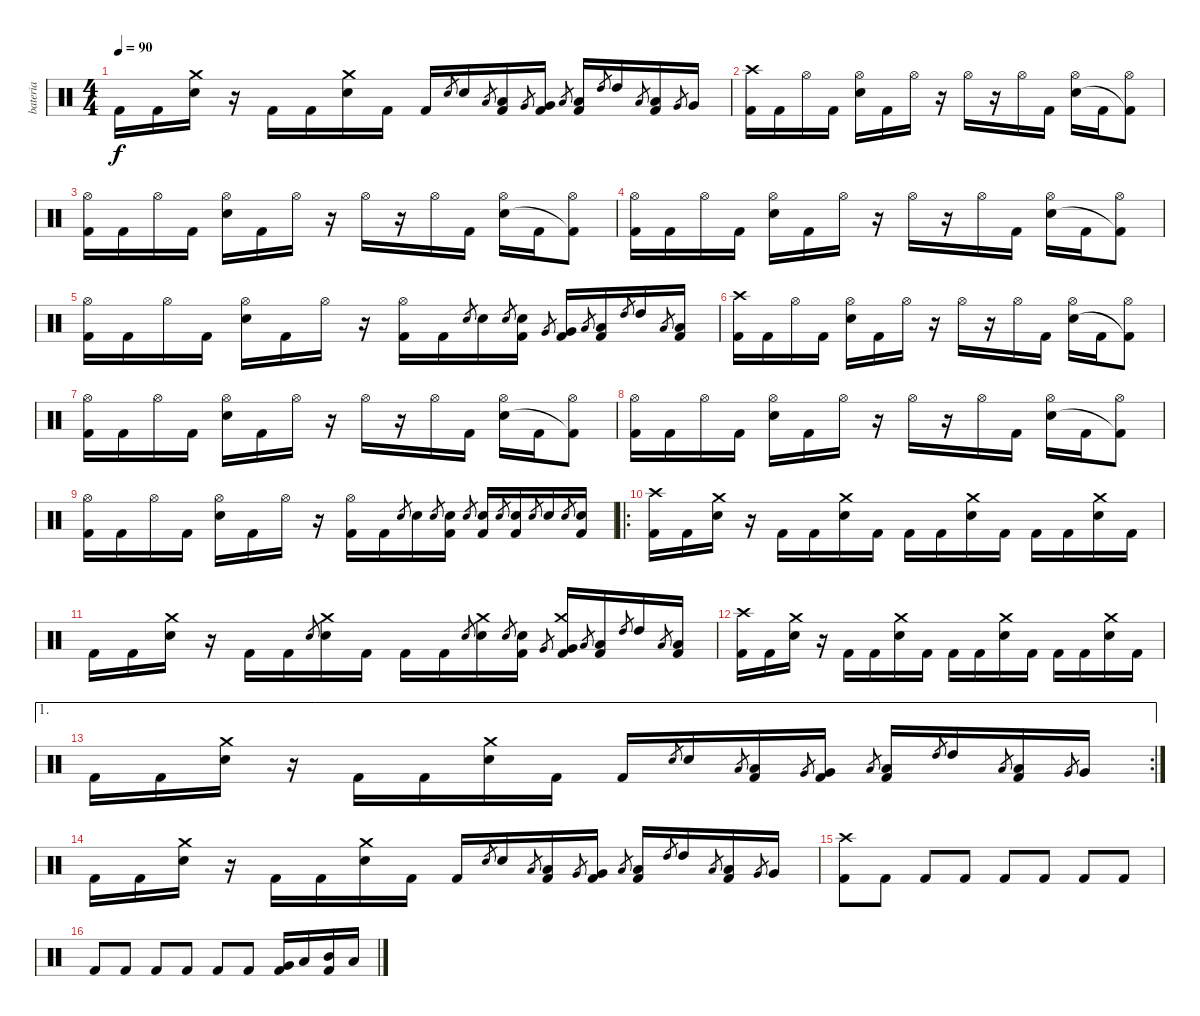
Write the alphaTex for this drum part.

\track ("bateria" "bateria") {instrument percussion}
\staff {score}
\articulation defaults
\ts (4 4)
\tempo 90
\clef neutral
\ks c "Kick (hit) 2".16{dy f} "Kick (hit) 2".16
("Crash medium (hit)" "Electric Snare (hit)").16 r.16 "Kick (hit) 2".16 "Kick (hit) 2".16 ("Crash medium (hit)" "Electric Snare (hit)").16 "Kick (hit) 2".16 "Kick (hit) 2".16 "Electric Snare (hit)".8{gr} "Electric Snare (hit)".16 "Low Tom (hit)".8{gr} ("Low Tom (hit)" "Kick (hit) 2").16 "Very Low Tom (hit)".8{gr} ("Very Low Tom (hit)" "Kick (hit) 2").16 "Low Tom (hit)".8{gr} ("Low Tom (hit)" "Kick (hit) 2").16 "High Tom (hit)".8{gr} "High Tom (hit)".16 "Low Tom (hit)".8{gr} ("Low Tom (hit)" "Kick (hit) 2").16 "Very Low Tom (hit)".8{gr} "Very Low Tom (hit)".16 |
("Crash high (hit)" "Kick (hit) 2").16 "Kick (hit) 2".16 "Hi-Hat (open)".16 "Kick (hit) 2".16 ("Hi-Hat (open)" "Electric Snare (hit)").16 "Kick (hit) 2".16 "Hi-Hat (open)".16 r.16 "Hi-Hat (open)".16 r.16 "Hi-Hat (open)".16 "Kick (hit) 2".16 ("Hi-Hat (open)" "Electric Snare (hit)").16 "Kick (hit) 2".16 ("Hi-Hat (open)" "Kick (hit) 2"{t}).8 |
("Hi-Hat (open)" "Kick (hit) 2").16 "Kick (hit) 2".16 "Hi-Hat (open)".16 "Kick (hit) 2".16 ("Hi-Hat (open)" "Electric Snare (hit)").16 "Kick (hit) 2".16 "Hi-Hat (open)".16 r.16 "Hi-Hat (open)".16 r.16 "Hi-Hat (open)".16 "Kick (hit) 2".16 ("Hi-Hat (open)" "Electric Snare (hit)").16 "Kick (hit) 2".16 ("Hi-Hat (open)" "Kick (hit) 2"{t}).8 |
("Hi-Hat (open)" "Kick (hit) 2").16 "Kick (hit) 2".16 "Hi-Hat (open)".16 "Kick (hit) 2".16 ("Hi-Hat (open)" "Electric Snare (hit)").16 "Kick (hit) 2".16 "Hi-Hat (open)".16 r.16 "Hi-Hat (open)".16 r.16 "Hi-Hat (open)".16 "Kick (hit) 2".16 ("Hi-Hat (open)" "Electric Snare (hit)").16 "Kick (hit) 2".16 ("Hi-Hat (open)" "Kick (hit) 2"{t}).8 |
("Hi-Hat (open)" "Kick (hit) 2").16 "Kick (hit) 2".16 "Hi-Hat (open)".16 "Kick (hit) 2".16 ("Hi-Hat (open)" "Electric Snare (hit)").16 "Kick (hit) 2".16 "Hi-Hat (open)".16 r.16 ("Hi-Hat (open)" "Kick (hit) 2").16 "Kick (hit) 2".16 "Electric Snare (hit)".8{gr} "Electric Snare (hit)".16 "Electric Snare (hit)".8{gr} ("Electric Snare (hit)" "Kick (hit) 2").16 "Very Low Tom (hit)".8{gr} ("Very Low Tom (hit)" "Kick (hit) 2").16 "Low Tom (hit)".8{gr} ("Low Tom (hit)" "Kick (hit) 2").16 "High Tom (hit)".8{gr} "High Tom (hit)".16 "Low Tom (hit)".8{gr} ("Low Tom (hit)" "Kick (hit) 2").16 |
("Crash high (hit)" "Kick (hit) 2").16 "Kick (hit) 2".16 "Hi-Hat (open)".16 "Kick (hit) 2".16 ("Hi-Hat (open)" "Electric Snare (hit)").16 "Kick (hit) 2".16 "Hi-Hat (open)".16 r.16 "Hi-Hat (open)".16 r.16 "Hi-Hat (open)".16 "Kick (hit) 2".16 ("Hi-Hat (open)" "Electric Snare (hit)").16 "Kick (hit) 2".16 ("Hi-Hat (open)" "Kick (hit) 2"{t}).8 |
("Hi-Hat (open)" "Kick (hit) 2").16 "Kick (hit) 2".16 "Hi-Hat (open)".16 "Kick (hit) 2".16 ("Hi-Hat (open)" "Electric Snare (hit)").16 "Kick (hit) 2".16 "Hi-Hat (open)".16 r.16 "Hi-Hat (open)".16 r.16 "Hi-Hat (open)".16 "Kick (hit) 2".16 ("Hi-Hat (open)" "Electric Snare (hit)").16 "Kick (hit) 2".16 ("Hi-Hat (open)" "Kick (hit) 2"{t}).8 |
("Hi-Hat (open)" "Kick (hit) 2").16 "Kick (hit) 2".16 "Hi-Hat (open)".16 "Kick (hit) 2".16 ("Hi-Hat (open)" "Electric Snare (hit)").16 "Kick (hit) 2".16 "Hi-Hat (open)".16 r.16 "Hi-Hat (open)".16 r.16 "Hi-Hat (open)".16 "Kick (hit) 2".16 ("Hi-Hat (open)" "Electric Snare (hit)").16 "Kick (hit) 2".16 ("Hi-Hat (open)" "Kick (hit) 2"{t}).8 |
("Hi-Hat (open)" "Kick (hit) 2").16 "Kick (hit) 2".16 "Hi-Hat (open)".16 "Kick (hit) 2".16 ("Hi-Hat (open)" "Electric Snare (hit)").16 "Kick (hit) 2".16 "Hi-Hat (open)".16 r.16 ("Hi-Hat (open)" "Kick (hit) 2").16 "Kick (hit) 2".16 "Electric Snare (hit)".8{gr} "Electric Snare (hit)".16 "Electric Snare (hit)".8{gr} ("Electric Snare (hit)" "Kick (hit) 2").16 "Electric Snare (hit)".8{gr} ("Electric Snare (hit)" "Kick (hit) 2").16 "Electric Snare (hit)".8{gr} ("Electric Snare (hit)" "Kick (hit) 2").16 "Electric Snare (hit)".8{gr} "Electric Snare (hit)".16 "Electric Snare (hit)".8{gr} ("Electric Snare (hit)" "Kick (hit) 2").16 |
\ro
("Crash high (hit)" "Kick (hit) 2").16 "Kick (hit) 2".16 ("Crash medium (hit)" "Electric Snare (hit)").16 r.16 "Kick (hit) 2".16 "Kick (hit) 2".16 ("Crash medium (hit)" "Electric Snare (hit)").16 "Kick (hit) 2".16 "Kick (hit) 2".16 "Kick (hit) 2".16 ("Crash medium (hit)" "Electric Snare (hit)").16 "Kick (hit) 2".16 "Kick (hit) 2".16 "Kick (hit) 2".16 ("Crash medium (hit)" "Electric Snare (hit)").16 "Kick (hit) 2".16 |
"Kick (hit) 2".16 "Kick (hit) 2".16 ("Crash medium (hit)" "Electric Snare (hit)").16 r.16 "Kick (hit) 2".16 "Kick (hit) 2".16 "Electric Snare (hit)".8{gr} ("Crash medium (hit)" "Electric Snare (hit)").16 "Kick (hit) 2".16 "Kick (hit) 2".16 "Kick (hit) 2".16 "Electric Snare (hit)".8{gr} ("Crash medium (hit)" "Electric Snare (hit)").16 "Electric Snare (hit)".8{gr} ("Electric Snare (hit)" "Kick (hit) 2").16 "Very Low Tom (hit)".8{gr} ("Crash medium (hit)" "Very Low Tom (hit)" "Kick (hit) 2").16 "Low Tom (hit)".8{gr} ("Low Tom (hit)" "Kick (hit) 2").16 "High Tom (hit)".8{gr} "High Tom (hit)".16 "Low Tom (hit)".8{gr} ("Low Tom (hit)" "Kick (hit) 2").16 |
("Crash high (hit)" "Kick (hit) 2").16 "Kick (hit) 2".16 ("Crash medium (hit)" "Electric Snare (hit)").16 r.16 "Kick (hit) 2".16 "Kick (hit) 2".16 ("Crash medium (hit)" "Electric Snare (hit)").16 "Kick (hit) 2".16 "Kick (hit) 2".16 "Kick (hit) 2".16 ("Crash medium (hit)" "Electric Snare (hit)").16 "Kick (hit) 2".16 "Kick (hit) 2".16 "Kick (hit) 2".16 ("Crash medium (hit)" "Electric Snare (hit)").16 "Kick (hit) 2".16 |
\ae 1
\rc 2 "Kick (hit) 2".16 "Kick (hit) 2".16
("Crash medium (hit)" "Electric Snare (hit)").16 r.16 "Kick (hit) 2".16 "Kick (hit) 2".16 ("Crash medium (hit)" "Electric Snare (hit)").16 "Kick (hit) 2".16 "Kick (hit) 2".16 "Electric Snare (hit)".8{gr} "Electric Snare (hit)".16 "Low Tom (hit)".8{gr} ("Low Tom (hit)" "Kick (hit) 2").16 "Very Low Tom (hit)".8{gr} ("Very Low Tom (hit)" "Kick (hit) 2").16 "Low Tom (hit)".8{gr} ("Low Tom (hit)" "Kick (hit) 2").16 "High Tom (hit)".8{gr} "High Tom (hit)".16 "Low Tom (hit)".8{gr} ("Low Tom (hit)" "Kick (hit) 2").16 "Very Low Tom (hit)".8{gr} "Very Low Tom (hit)".16 |
"Kick (hit) 2".16 "Kick (hit) 2".16 ("Crash medium (hit)" "Electric Snare (hit)").16 r.16 "Kick (hit) 2".16 "Kick (hit) 2".16 ("Crash medium (hit)" "Electric Snare (hit)").16 "Kick (hit) 2".16 "Kick (hit) 2".16 "Electric Snare (hit)".8{gr} "Electric Snare (hit)".16 "Low Tom (hit)".8{gr} ("Low Tom (hit)" "Kick (hit) 2").16 "Very Low Tom (hit)".8{gr} ("Very Low Tom (hit)" "Kick (hit) 2").16 "Low Tom (hit)".8{gr} ("Low Tom (hit)" "Kick (hit) 2").16 "High Tom (hit)".8{gr} "High Tom (hit)".16 "Low Tom (hit)".8{gr} ("Low Tom (hit)" "Kick (hit) 2").16 "Very Low Tom (hit)".8{gr} "Very Low Tom (hit)".16 |
("Crash high (hit)" "Kick (hit) 2").8 "Kick (hit) 2".8 "Kick (hit) 2".8 "Kick (hit) 2".8 "Kick (hit) 2".8 "Kick (hit) 2".8 "Kick (hit) 2".8 "Kick (hit) 2".8 |
"Kick (hit) 2".8 "Kick (hit) 2".8 "Kick (hit) 2".8 "Kick (hit) 2".8 "Kick (hit) 2".8 "Kick (hit) 2".8 ("Very Low Tom (hit)" "Kick (hit) 2").16 "Low Tom (hit)".16 ("Mid Tom (hit)" "Kick (hit) 2").16 "Low Tom (hit)".16
